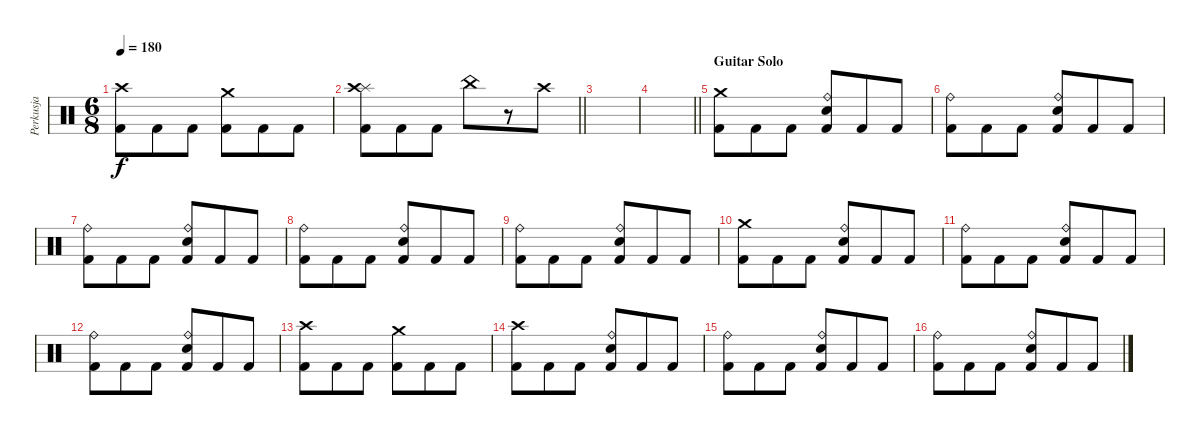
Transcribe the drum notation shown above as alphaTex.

\track ("Perkusja" "Perkusja") {instrument percussion}
\staff {score}
\articulation defaults
\ts (6 8)
\tempo 180
\clef neutral
\ks c
("Crash high (hit)" "Kick (hit) 2").8{dy f} "Kick (hit) 2".8 "Kick (hit) 2".8 ("Crash medium (hit)" "Kick (hit) 2").8 "Kick (hit) 2".8 "Kick (hit) 2".8 |
\barLineRight lightlight
("Splash (hit)" "Crash high (hit)" "Kick (hit) 2").8 "Kick (hit) 2".8 "Kick (hit) 2".8 "China (hit)".8 r.8 "Crash high (hit)".8 |
|
\barLineRight lightlight
|
\section ("" "Guitar Solo")
("Crash medium (hit)" "Kick (hit) 2").8 "Kick (hit) 2".8 "Kick (hit) 2".8 ("Ride (bell)" "Snare (hit) 2" "Kick (hit) 2").8 "Kick (hit) 2".8 "Kick (hit) 2".8 |
("Ride (bell)" "Kick (hit) 2").8 "Kick (hit) 2".8 "Kick (hit) 2".8 ("Ride (bell)" "Snare (hit) 2" "Kick (hit) 2").8 "Kick (hit) 2".8 "Kick (hit) 2".8 |
("Ride (bell)" "Kick (hit) 2").8 "Kick (hit) 2".8 "Kick (hit) 2".8 ("Ride (bell)" "Snare (hit) 2" "Kick (hit) 2").8 "Kick (hit) 2".8 "Kick (hit) 2".8 |
("Ride (bell)" "Kick (hit) 2").8 "Kick (hit) 2".8 "Kick (hit) 2".8 ("Ride (bell)" "Snare (hit) 2" "Kick (hit) 2").8 "Kick (hit) 2".8 "Kick (hit) 2".8 |
("Ride (bell)" "Kick (hit) 2").8 "Kick (hit) 2".8 "Kick (hit) 2".8 ("Ride (bell)" "Snare (hit) 2" "Kick (hit) 2").8 "Kick (hit) 2".8 "Kick (hit) 2".8 |
("Crash medium (hit)" "Kick (hit) 2").8 "Kick (hit) 2".8 "Kick (hit) 2".8 ("Ride (bell)" "Snare (hit) 2" "Kick (hit) 2").8 "Kick (hit) 2".8 "Kick (hit) 2".8 |
("Ride (bell)" "Kick (hit) 2").8 "Kick (hit) 2".8 "Kick (hit) 2".8 ("Ride (bell)" "Snare (hit) 2" "Kick (hit) 2").8 "Kick (hit) 2".8 "Kick (hit) 2".8 |
("Ride (bell)" "Kick (hit) 2").8 "Kick (hit) 2".8 "Kick (hit) 2".8 ("Ride (bell)" "Snare (hit) 2" "Kick (hit) 2").8 "Kick (hit) 2".8 "Kick (hit) 2".8 |
("Crash high (hit)" "Kick (hit) 2").8 "Kick (hit) 2".8 "Kick (hit) 2".8 ("Crash medium (hit)" "Kick (hit) 2").8 "Kick (hit) 2".8 "Kick (hit) 2".8 |
("Crash high (hit)" "Kick (hit) 2").8 "Kick (hit) 2".8 "Kick (hit) 2".8 ("Ride (bell)" "Snare (hit) 2" "Kick (hit) 2").8 "Kick (hit) 2".8 "Kick (hit) 2".8 |
("Ride (bell)" "Kick (hit) 2").8 "Kick (hit) 2".8 "Kick (hit) 2".8 ("Ride (bell)" "Snare (hit) 2" "Kick (hit) 2").8 "Kick (hit) 2".8 "Kick (hit) 2".8 |
("Ride (bell)" "Kick (hit) 2").8 "Kick (hit) 2".8 "Kick (hit) 2".8 ("Ride (bell)" "Snare (hit) 2" "Kick (hit) 2").8 "Kick (hit) 2".8 "Kick (hit) 2".8
